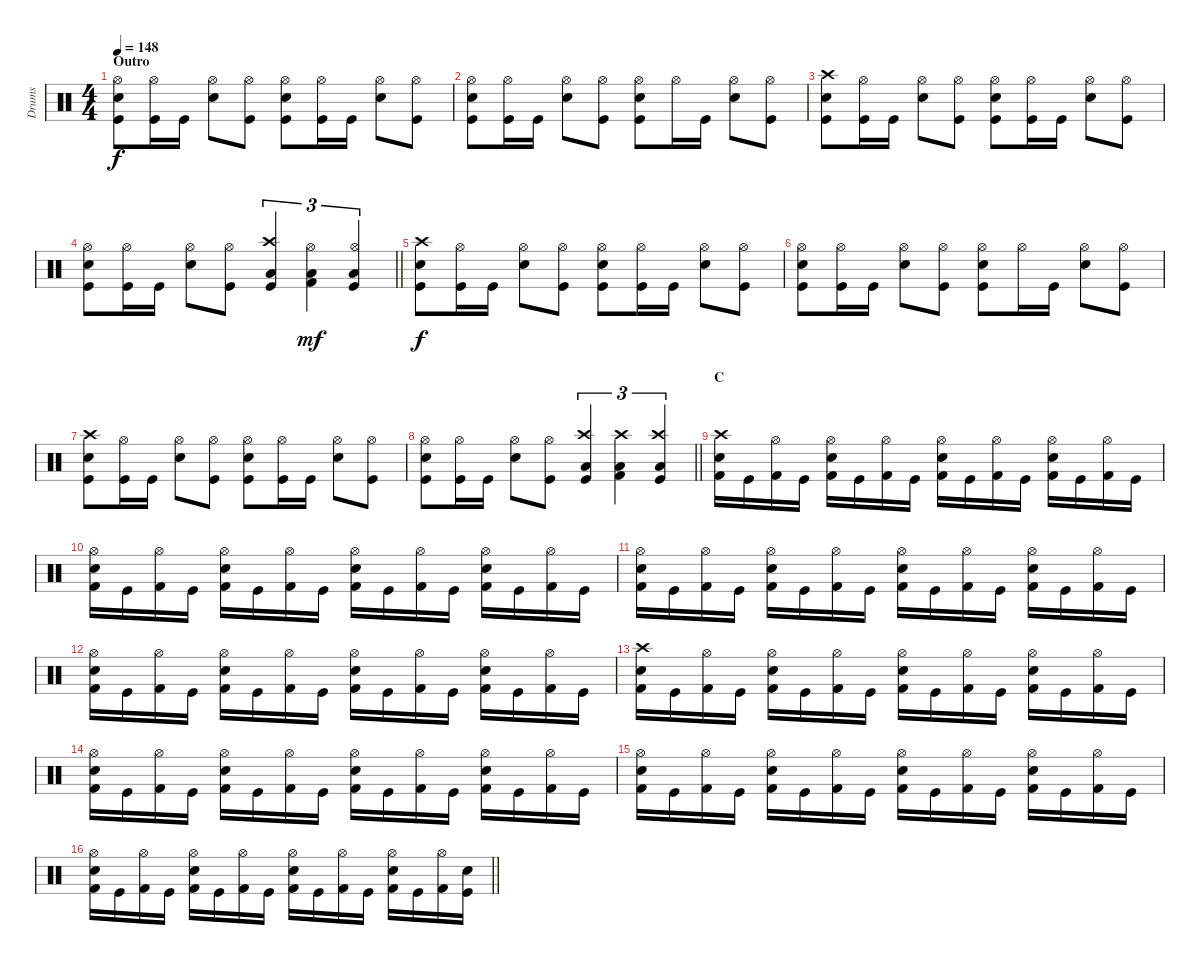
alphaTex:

\track ("Drums" "Drums") {instrument percussion}
\staff {score}
\articulation defaults
\ts (4 4)
\section ("" "Outro")
\tempo 148
\clef neutral
\ks c
("Kick (hit)" "Snare (hit) 2" "Hi-Hat (open)").8{dy f} ("Kick (hit)" "Hi-Hat (open)").16 "Kick (hit)".16 ("Snare (hit) 2" "Hi-Hat (open)").8 ("Kick (hit)" "Hi-Hat (open)").8 ("Kick (hit)" "Snare (hit) 2" "Hi-Hat (open)").8 ("Kick (hit)" "Hi-Hat (open)").16 "Kick (hit)".16 ("Snare (hit) 2" "Hi-Hat (open)").8 ("Kick (hit)" "Hi-Hat (open)").8 |
("Kick (hit)" "Snare (hit) 2" "Hi-Hat (open)").8 ("Kick (hit)" "Hi-Hat (open)").16 "Kick (hit)".16 ("Snare (hit) 2" "Hi-Hat (open)").8 ("Kick (hit)" "Hi-Hat (open)").8 ("Kick (hit)" "Snare (hit) 2" "Hi-Hat (open)").8 "Hi-Hat (open)".16 "Kick (hit)".16 ("Snare (hit) 2" "Hi-Hat (open)").8 ("Kick (hit)" "Hi-Hat (open)").8 |
("Kick (hit)" "Snare (hit) 2" "Crash high (hit)").8 ("Kick (hit)" "Hi-Hat (open)").16 "Kick (hit)".16 ("Snare (hit) 2" "Hi-Hat (open)").8 ("Kick (hit)" "Hi-Hat (open)").8 ("Kick (hit)" "Snare (hit) 2" "Hi-Hat (open)").8 ("Kick (hit)" "Hi-Hat (open)").16 "Kick (hit)".16 ("Snare (hit) 2" "Hi-Hat (open)").8 ("Kick (hit)" "Hi-Hat (open)").8 |
\barLineRight lightlight
("Kick (hit)" "Snare (hit) 2" "Hi-Hat (open)").8 ("Kick (hit)" "Hi-Hat (open)").16 "Kick (hit)".16 ("Snare (hit) 2" "Hi-Hat (open)").8 ("Kick (hit)" "Hi-Hat (open)").8 ("Kick (hit)" "Crash high (hit)" "Low Floor Tom (hit)").4{tu (3 2)} ("Kick (hit) 2" "Hi-Hat (open)" "Low Floor Tom (hit)").4{tu (3 2) dy mf} ("Kick (hit)" "Hi-Hat (open)" "Low Floor Tom (hit)").4{tu (3 2)} |
("Kick (hit)" "Snare (hit) 2" "Crash high (hit)").8{dy f} ("Kick (hit)" "Hi-Hat (open)").16 "Kick (hit)".16 ("Snare (hit) 2" "Hi-Hat (open)").8 ("Kick (hit)" "Hi-Hat (open)").8 ("Kick (hit)" "Snare (hit) 2" "Hi-Hat (open)").8 ("Kick (hit)" "Hi-Hat (open)").16 "Kick (hit)".16 ("Snare (hit) 2" "Hi-Hat (open)").8 ("Kick (hit)" "Hi-Hat (open)").8 |
("Kick (hit)" "Snare (hit) 2" "Hi-Hat (open)").8 ("Kick (hit)" "Hi-Hat (open)").16 "Kick (hit)".16 ("Snare (hit) 2" "Hi-Hat (open)").8 ("Kick (hit)" "Hi-Hat (open)").8 ("Kick (hit)" "Snare (hit) 2" "Hi-Hat (open)").8 "Hi-Hat (open)".16 "Kick (hit)".16 ("Snare (hit) 2" "Hi-Hat (open)").8 ("Kick (hit)" "Hi-Hat (open)").8 |
("Kick (hit)" "Snare (hit) 2" "Crash high (hit)").8 ("Kick (hit)" "Hi-Hat (open)").16 "Kick (hit)".16 ("Snare (hit) 2" "Hi-Hat (open)").8 ("Kick (hit)" "Hi-Hat (open)").8 ("Kick (hit)" "Snare (hit) 2" "Hi-Hat (open)").8 ("Kick (hit)" "Hi-Hat (open)").16 "Kick (hit)".16 ("Snare (hit) 2" "Hi-Hat (open)").8 ("Kick (hit)" "Hi-Hat (open)").8 |
\barLineRight lightlight
("Kick (hit)" "Snare (hit) 2" "Hi-Hat (open)").8 ("Kick (hit)" "Hi-Hat (open)").16 "Kick (hit)".16 ("Snare (hit) 2" "Hi-Hat (open)").8 ("Kick (hit)" "Hi-Hat (open)").8 ("Kick (hit)" "Crash high (hit)" "Low Floor Tom (hit)").4{tu (3 2)} ("Kick (hit) 2" "Crash high (hit)" "Low Floor Tom (hit)").4{tu (3 2)} ("Kick (hit)" "Crash high (hit)" "Low Floor Tom (hit)").4{tu (3 2)} |
\section ("" "C")
("Kick (hit) 2" "Snare (hit) 2" "Crash high (hit)").16 "Kick (hit)".16 ("Kick (hit) 2" "Hi-Hat (open)").16 "Kick (hit)".16 ("Kick (hit) 2" "Snare (hit) 2" "Hi-Hat (open)").16 "Kick (hit)".16 ("Kick (hit) 2" "Hi-Hat (open)").16 "Kick (hit)".16 ("Kick (hit) 2" "Snare (hit) 2" "Hi-Hat (open)").16 "Kick (hit)".16 ("Kick (hit) 2" "Hi-Hat (open)").16 "Kick (hit)".16 ("Kick (hit) 2" "Snare (hit) 2" "Hi-Hat (open)").16 "Kick (hit)".16 ("Kick (hit) 2" "Hi-Hat (open)").16 "Kick (hit)".16 |
("Kick (hit) 2" "Snare (hit) 2" "Hi-Hat (open)").16 "Kick (hit)".16 ("Kick (hit) 2" "Hi-Hat (open)").16 "Kick (hit)".16 ("Kick (hit) 2" "Snare (hit) 2" "Hi-Hat (open)").16 "Kick (hit)".16 ("Kick (hit) 2" "Hi-Hat (open)").16 "Kick (hit)".16 ("Kick (hit) 2" "Snare (hit) 2" "Hi-Hat (open)").16 "Kick (hit)".16 ("Kick (hit) 2" "Hi-Hat (open)").16 "Kick (hit)".16 ("Kick (hit) 2" "Snare (hit) 2" "Hi-Hat (open)").16 "Kick (hit)".16 ("Kick (hit) 2" "Hi-Hat (open)").16 "Kick (hit)".16 |
("Kick (hit) 2" "Snare (hit) 2" "Hi-Hat (open)").16 "Kick (hit)".16 ("Kick (hit) 2" "Hi-Hat (open)").16 "Kick (hit)".16 ("Kick (hit) 2" "Snare (hit) 2" "Hi-Hat (open)").16 "Kick (hit)".16 ("Kick (hit) 2" "Hi-Hat (open)").16 "Kick (hit)".16 ("Kick (hit) 2" "Snare (hit) 2" "Hi-Hat (open)").16 "Kick (hit)".16 ("Kick (hit) 2" "Hi-Hat (open)").16 "Kick (hit)".16 ("Kick (hit) 2" "Snare (hit) 2" "Hi-Hat (open)").16 "Kick (hit)".16 ("Kick (hit) 2" "Hi-Hat (open)").16 "Kick (hit)".16 |
("Kick (hit) 2" "Snare (hit) 2" "Hi-Hat (open)").16 "Kick (hit)".16 ("Kick (hit) 2" "Hi-Hat (open)").16 "Kick (hit)".16 ("Kick (hit) 2" "Snare (hit) 2" "Hi-Hat (open)").16 "Kick (hit)".16 ("Kick (hit) 2" "Hi-Hat (open)").16 "Kick (hit)".16 ("Kick (hit) 2" "Snare (hit) 2" "Hi-Hat (open)").16 "Kick (hit)".16 ("Kick (hit) 2" "Hi-Hat (open)").16 "Kick (hit)".16 ("Kick (hit) 2" "Snare (hit) 2" "Hi-Hat (open)").16 "Kick (hit)".16 ("Kick (hit) 2" "Hi-Hat (open)").16 "Kick (hit)".16 |
("Kick (hit) 2" "Snare (hit) 2" "Crash high (hit)").16 "Kick (hit)".16 ("Kick (hit) 2" "Hi-Hat (open)").16 "Kick (hit)".16 ("Kick (hit) 2" "Snare (hit) 2" "Hi-Hat (open)").16 "Kick (hit)".16 ("Kick (hit) 2" "Hi-Hat (open)").16 "Kick (hit)".16 ("Kick (hit) 2" "Snare (hit) 2" "Hi-Hat (open)").16 "Kick (hit)".16 ("Kick (hit) 2" "Hi-Hat (open)").16 "Kick (hit)".16 ("Kick (hit) 2" "Snare (hit) 2" "Hi-Hat (open)").16 "Kick (hit)".16 ("Kick (hit) 2" "Hi-Hat (open)").16 "Kick (hit)".16 |
("Kick (hit) 2" "Snare (hit) 2" "Hi-Hat (open)").16 "Kick (hit)".16 ("Kick (hit) 2" "Hi-Hat (open)").16 "Kick (hit)".16 ("Kick (hit) 2" "Snare (hit) 2" "Hi-Hat (open)").16 "Kick (hit)".16 ("Kick (hit) 2" "Hi-Hat (open)").16 "Kick (hit)".16 ("Kick (hit) 2" "Snare (hit) 2" "Hi-Hat (open)").16 "Kick (hit)".16 ("Kick (hit) 2" "Hi-Hat (open)").16 "Kick (hit)".16 ("Kick (hit) 2" "Snare (hit) 2" "Hi-Hat (open)").16 "Kick (hit)".16 ("Kick (hit) 2" "Hi-Hat (open)").16 "Kick (hit)".16 |
("Kick (hit) 2" "Snare (hit) 2" "Hi-Hat (open)").16 "Kick (hit)".16 ("Kick (hit) 2" "Hi-Hat (open)").16 "Kick (hit)".16 ("Kick (hit) 2" "Snare (hit) 2" "Hi-Hat (open)").16 "Kick (hit)".16 ("Kick (hit) 2" "Hi-Hat (open)").16 "Kick (hit)".16 ("Kick (hit) 2" "Snare (hit) 2" "Hi-Hat (open)").16 "Kick (hit)".16 ("Kick (hit) 2" "Hi-Hat (open)").16 "Kick (hit)".16 ("Kick (hit) 2" "Snare (hit) 2" "Hi-Hat (open)").16 "Kick (hit)".16 ("Kick (hit) 2" "Hi-Hat (open)").16 "Kick (hit)".16 |
\barLineRight lightlight
("Kick (hit) 2" "Snare (hit) 2" "Hi-Hat (open)").16 "Kick (hit)".16 ("Kick (hit) 2" "Hi-Hat (open)").16 "Kick (hit)".16 ("Kick (hit) 2" "Snare (hit) 2" "Hi-Hat (open)").16 "Kick (hit)".16 ("Kick (hit) 2" "Hi-Hat (open)").16 "Kick (hit)".16 ("Kick (hit) 2" "Snare (hit) 2" "Hi-Hat (open)").16 "Kick (hit)".16 ("Kick (hit) 2" "Hi-Hat (open)").16 "Kick (hit)".16 ("Kick (hit) 2" "Snare (hit) 2" "Hi-Hat (open)").16 "Kick (hit)".16 ("Kick (hit) 2" "Hi-Hat (open)").16 ("Kick (hit)" "Electric Snare (hit)").16
